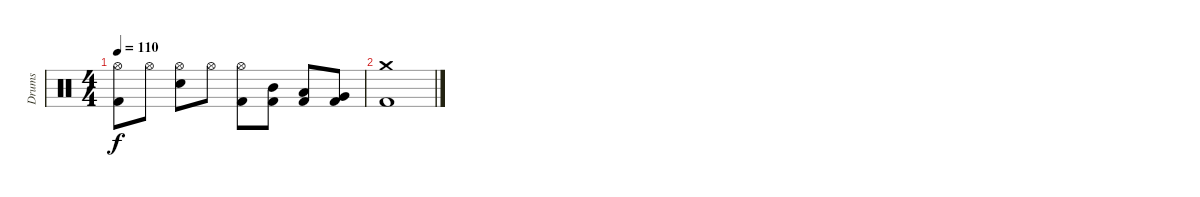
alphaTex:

\track ("Drums" "Drums") {instrument percussion}
\staff {score}
\articulation defaults
\ts (4 4)
\tempo 110
\clef neutral
\ks c
("Hi-Hat (open)" "Kick (hit) 2").8{dy f} "Hi-Hat (open)".8 ("Hi-Hat (open)" "Electric Snare (hit)").8 "Hi-Hat (open)".8 ("Hi-Hat (open)" "Kick (hit) 2").8 ("Mid Tom (hit)" "Kick (hit) 2").8 ("Low Tom (hit)" "Kick (hit) 2").8 ("Very Low Tom (hit)" "Kick (hit) 2").8 |
("Crash medium (hit)" "Kick (hit) 2").1
